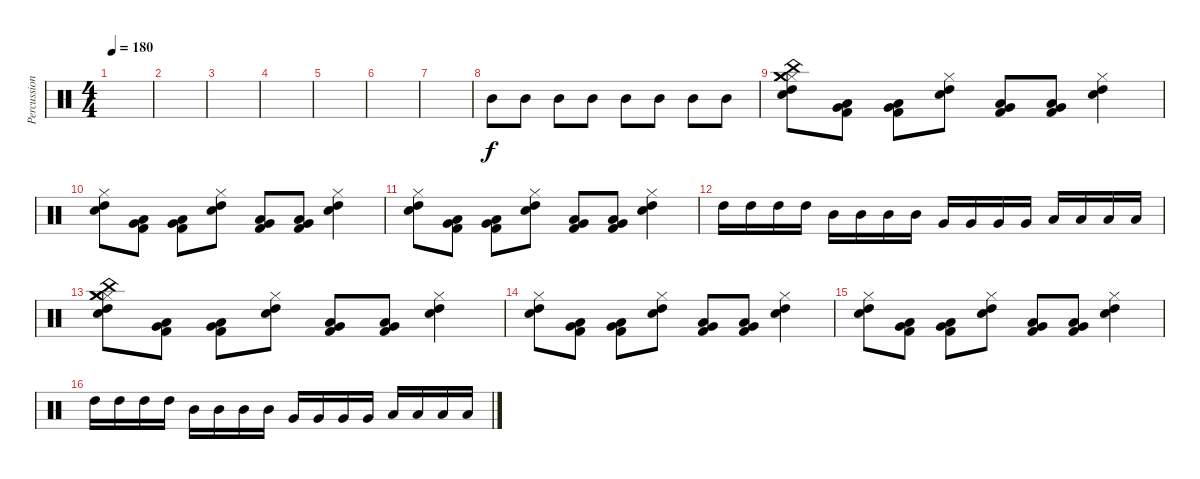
\track ("Percussion" "Percussion") {instrument percussion}
\staff {score}
\articulation defaults
\ts (4 4)
\tempo 180
\clef neutral
\ks c
|
|
|
|
|
|
|
"Mid Tom (hit)".8 "Mid Tom (hit)".8 "Mid Tom (hit)".8 "Mid Tom (hit)".8 "Mid Tom (hit)".8 "Mid Tom (hit)".8 "Mid Tom (hit)".8 "Mid Tom (hit)".8 |
("High Tom (hit)" "Snare (hit) 2" "Hi-Hat (closed)" "China (hit)" "Crash medium (hit)" "Crash medium (hit)").8 ("Kick (hit) 2" "Very Low Tom (hit)" "Low Tom (hit)").8 ("Kick (hit) 2" "Very Low Tom (hit)" "Low Tom (hit)").8 ("High Tom (hit)" "Snare (hit) 2" "Hi-Hat (closed)").8 ("Kick (hit) 2" "Very Low Tom (hit)" "Low Tom (hit)").8 ("Kick (hit) 2" "Very Low Tom (hit)" "Low Tom (hit)").8 ("High Tom (hit)" "Snare (hit) 2" "Hi-Hat (closed)").4 |
("High Tom (hit)" "Snare (hit) 2" "Hi-Hat (closed)").8 ("Kick (hit) 2" "Very Low Tom (hit)" "Low Tom (hit)").8 ("Kick (hit) 2" "Very Low Tom (hit)" "Low Tom (hit)").8 ("High Tom (hit)" "Snare (hit) 2" "Hi-Hat (closed)").8 ("Kick (hit) 2" "Very Low Tom (hit)" "Low Tom (hit)").8 ("Kick (hit) 2" "Very Low Tom (hit)" "Low Tom (hit)").8 ("High Tom (hit)" "Snare (hit) 2" "Hi-Hat (closed)").4 |
("High Tom (hit)" "Snare (hit) 2" "Hi-Hat (closed)").8 ("Kick (hit) 2" "Very Low Tom (hit)" "Low Tom (hit)").8 ("Kick (hit) 2" "Very Low Tom (hit)" "Low Tom (hit)").8 ("High Tom (hit)" "Snare (hit) 2" "Hi-Hat (closed)").8 ("Kick (hit) 2" "Very Low Tom (hit)" "Low Tom (hit)").8 ("Kick (hit) 2" "Very Low Tom (hit)" "Low Tom (hit)").8 ("High Tom (hit)" "Snare (hit) 2" "Hi-Hat (closed)").4 |
"High Tom (hit)".16 "High Tom (hit)".16 "High Tom (hit)".16 "High Tom (hit)".16 "Mid Tom (hit)".16 "Mid Tom (hit)".16 "Mid Tom (hit)".16 "Mid Tom (hit)".16 "Very Low Tom (hit)".16 "Very Low Tom (hit)".16 "Very Low Tom (hit)".16 "Very Low Tom (hit)".16 "Low Floor Tom (hit)".16 "Low Floor Tom (hit)".16 "Low Floor Tom (hit)".16 "Low Floor Tom (hit)".16 |
("High Tom (hit)" "Snare (hit) 2" "Hi-Hat (closed)" "China (hit)" "Crash medium (hit)" "Crash medium (hit)").8 ("Kick (hit) 2" "Very Low Tom (hit)" "Low Tom (hit)").8 ("Kick (hit) 2" "Very Low Tom (hit)" "Low Tom (hit)").8 ("High Tom (hit)" "Snare (hit) 2" "Hi-Hat (closed)").8 ("Kick (hit) 2" "Very Low Tom (hit)" "Low Tom (hit)").8 ("Kick (hit) 2" "Very Low Tom (hit)" "Low Tom (hit)").8 ("High Tom (hit)" "Snare (hit) 2" "Hi-Hat (closed)").4 |
("High Tom (hit)" "Snare (hit) 2" "Hi-Hat (closed)").8 ("Kick (hit) 2" "Very Low Tom (hit)" "Low Tom (hit)").8 ("Kick (hit) 2" "Very Low Tom (hit)" "Low Tom (hit)").8 ("High Tom (hit)" "Snare (hit) 2" "Hi-Hat (closed)").8 ("Kick (hit) 2" "Very Low Tom (hit)" "Low Tom (hit)").8 ("Kick (hit) 2" "Very Low Tom (hit)" "Low Tom (hit)").8 ("High Tom (hit)" "Snare (hit) 2" "Hi-Hat (closed)").4 |
("High Tom (hit)" "Snare (hit) 2" "Hi-Hat (closed)").8 ("Kick (hit) 2" "Very Low Tom (hit)" "Low Tom (hit)").8 ("Kick (hit) 2" "Very Low Tom (hit)" "Low Tom (hit)").8 ("High Tom (hit)" "Snare (hit) 2" "Hi-Hat (closed)").8 ("Kick (hit) 2" "Very Low Tom (hit)" "Low Tom (hit)").8 ("Kick (hit) 2" "Very Low Tom (hit)" "Low Tom (hit)").8 ("High Tom (hit)" "Snare (hit) 2" "Hi-Hat (closed)").4 |
"High Tom (hit)".16 "High Tom (hit)".16 "High Tom (hit)".16 "High Tom (hit)".16 "Mid Tom (hit)".16 "Mid Tom (hit)".16 "Mid Tom (hit)".16 "Mid Tom (hit)".16 "Very Low Tom (hit)".16 "Very Low Tom (hit)".16 "Very Low Tom (hit)".16 "Very Low Tom (hit)".16 "Low Floor Tom (hit)".16 "Low Floor Tom (hit)".16 "Low Floor Tom (hit)".16 "Low Floor Tom (hit)".16
